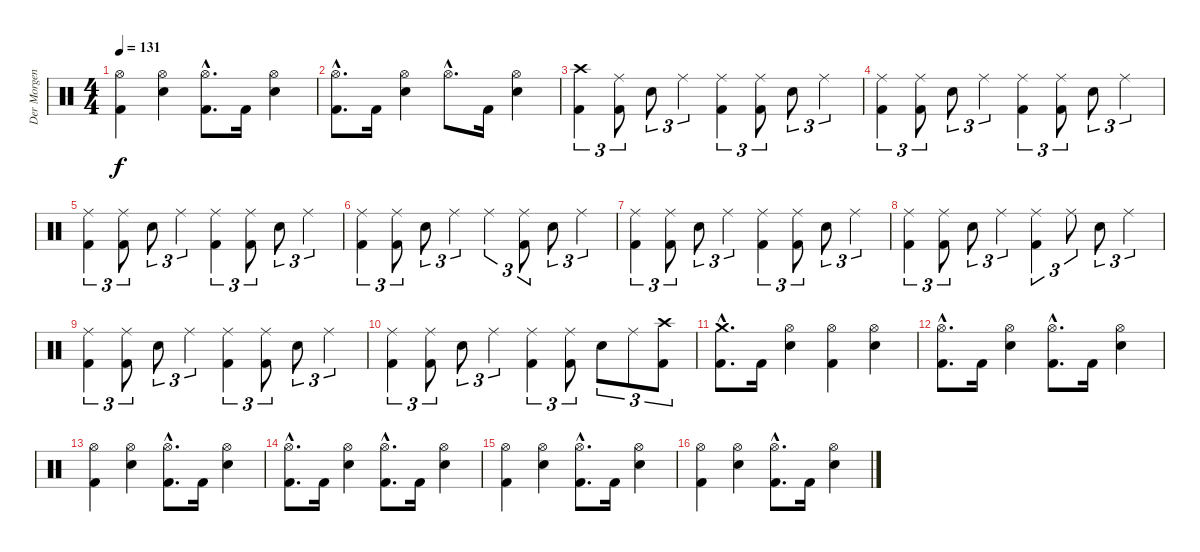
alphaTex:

\track ("Der Morgenstern" "Der Morgen") {instrument percussion}
\staff {score}
\articulation defaults
\ts (4 4)
\tempo 131
\clef neutral
\ks c
("Hi-Hat (open)" "Kick (hit) 2").4{dy f} ("Hi-Hat (open)" "Electric Snare (hit)").4 ("Hi-Hat (open)"{hac} "Kick (hit) 2"{hac}).8{d} "Kick (hit) 2".16 ("Hi-Hat (open)" "Electric Snare (hit)").4 |
("Hi-Hat (open)"{hac} "Kick (hit) 2"{hac}).8{d} "Kick (hit) 2".16 ("Hi-Hat (open)" "Electric Snare (hit)").4 "Hi-Hat (open)"{hac}.8{d} "Kick (hit) 2".16 ("Hi-Hat (open)" "Electric Snare (hit)").4 |
("Crash high (hit)" "Kick (hit) 2").4{tu (3 2)} ("Ride (middle)" "Kick (hit) 2").8{tu (3 2)} "Electric Snare (hit)".8{tu (3 2)} "Ride (middle)".4{tu (3 2)} ("Ride (middle)" "Kick (hit) 2").4{tu (3 2)} ("Ride (middle)" "Kick (hit) 2").8{tu (3 2)} "Electric Snare (hit)".8{tu (3 2)} "Ride (middle)".4{tu (3 2)} |
("Ride (middle)" "Kick (hit) 2").4{tu (3 2)} ("Ride (middle)" "Kick (hit) 2").8{tu (3 2)} "Electric Snare (hit)".8{tu (3 2)} "Ride (middle)".4{tu (3 2)} ("Ride (middle)" "Kick (hit) 2").4{tu (3 2)} ("Ride (middle)" "Kick (hit) 2").8{tu (3 2)} "Electric Snare (hit)".8{tu (3 2)} "Ride (middle)".4{tu (3 2)} |
("Ride (middle)" "Kick (hit) 2").4{tu (3 2)} ("Ride (middle)" "Kick (hit) 2").8{tu (3 2)} "Electric Snare (hit)".8{tu (3 2)} "Ride (middle)".4{tu (3 2)} ("Ride (middle)" "Kick (hit) 2").4{tu (3 2)} ("Ride (middle)" "Kick (hit) 2").8{tu (3 2)} "Electric Snare (hit)".8{tu (3 2)} "Ride (middle)".4{tu (3 2)} |
("Ride (middle)" "Kick (hit) 2").4{tu (3 2)} ("Ride (middle)" "Kick (hit) 2").8{tu (3 2)} "Electric Snare (hit)".8{tu (3 2)} "Ride (middle)".4{tu (3 2)} "Ride (middle)".4{tu (3 2)} ("Ride (middle)" "Kick (hit) 2").8{tu (3 2)} "Electric Snare (hit)".8{tu (3 2)} "Ride (middle)".4{tu (3 2)} |
("Ride (middle)" "Kick (hit) 2").4{tu (3 2)} ("Ride (middle)" "Kick (hit) 2").8{tu (3 2)} "Electric Snare (hit)".8{tu (3 2)} "Ride (middle)".4{tu (3 2)} ("Ride (middle)" "Kick (hit) 2").4{tu (3 2)} ("Ride (middle)" "Kick (hit) 2").8{tu (3 2)} "Electric Snare (hit)".8{tu (3 2)} "Ride (middle)".4{tu (3 2)} |
("Ride (middle)" "Kick (hit) 2").4{tu (3 2)} ("Ride (middle)" "Kick (hit) 2").8{tu (3 2)} "Electric Snare (hit)".8{tu (3 2)} "Ride (middle)".4{tu (3 2)} ("Ride (middle)" "Kick (hit) 2").4{tu (3 2)} "Ride (middle)".8{tu (3 2)} "Electric Snare (hit)".8{tu (3 2)} "Ride (middle)".4{tu (3 2)} |
("Ride (middle)" "Kick (hit) 2").4{tu (3 2)} ("Ride (middle)" "Kick (hit) 2").8{tu (3 2)} "Electric Snare (hit)".8{tu (3 2)} "Ride (middle)".4{tu (3 2)} ("Ride (middle)" "Kick (hit) 2").4{tu (3 2)} ("Ride (middle)" "Kick (hit) 2").8{tu (3 2)} "Electric Snare (hit)".8{tu (3 2)} "Ride (middle)".4{tu (3 2)} |
("Ride (middle)" "Kick (hit) 2").4{tu (3 2)} ("Ride (middle)" "Kick (hit) 2").8{tu (3 2)} "Electric Snare (hit)".8{tu (3 2)} "Ride (middle)".4{tu (3 2)} ("Ride (middle)" "Kick (hit) 2").4{tu (3 2)} ("Ride (middle)" "Kick (hit) 2").8{tu (3 2)} "Electric Snare (hit)".8{tu (3 2)} "Ride (middle)".8{tu (3 2)} ("Crash high (hit)" "Kick (hit) 2").8{tu (3 2)} |
("Crash medium (hit)"{hac} "Kick (hit) 2"{hac}).8{d} "Kick (hit) 2".16 ("Hi-Hat (open)" "Electric Snare (hit)").4 ("Hi-Hat (open)" "Kick (hit) 2").4 ("Hi-Hat (open)" "Electric Snare (hit)").4 |
("Hi-Hat (open)"{hac} "Kick (hit) 2"{hac}).8{d} "Kick (hit) 2".16 ("Hi-Hat (open)" "Electric Snare (hit)").4 ("Hi-Hat (open)"{hac} "Kick (hit) 2"{hac}).8{d} "Kick (hit) 2".16 ("Hi-Hat (open)" "Electric Snare (hit)").4 |
("Hi-Hat (open)" "Kick (hit) 2").4 ("Hi-Hat (open)" "Electric Snare (hit)").4 ("Hi-Hat (open)"{hac} "Kick (hit) 2"{hac}).8{d} "Kick (hit) 2".16 ("Hi-Hat (open)" "Electric Snare (hit)").4 |
("Hi-Hat (open)"{hac} "Kick (hit) 2"{hac}).8{d} "Kick (hit) 2".16 ("Hi-Hat (open)" "Electric Snare (hit)").4 ("Hi-Hat (open)"{hac} "Kick (hit) 2"{hac}).8{d} "Kick (hit) 2".16 ("Hi-Hat (open)" "Electric Snare (hit)").4 |
("Hi-Hat (open)" "Kick (hit) 2").4 ("Hi-Hat (open)" "Electric Snare (hit)").4 ("Hi-Hat (open)"{hac} "Kick (hit) 2"{hac}).8{d} "Kick (hit) 2".16 ("Hi-Hat (open)" "Electric Snare (hit)").4 |
("Hi-Hat (open)" "Kick (hit) 2").4 ("Hi-Hat (open)" "Electric Snare (hit)").4 ("Hi-Hat (open)"{hac} "Kick (hit) 2"{hac}).8{d} "Kick (hit) 2".16 ("Hi-Hat (open)" "Electric Snare (hit)").4
